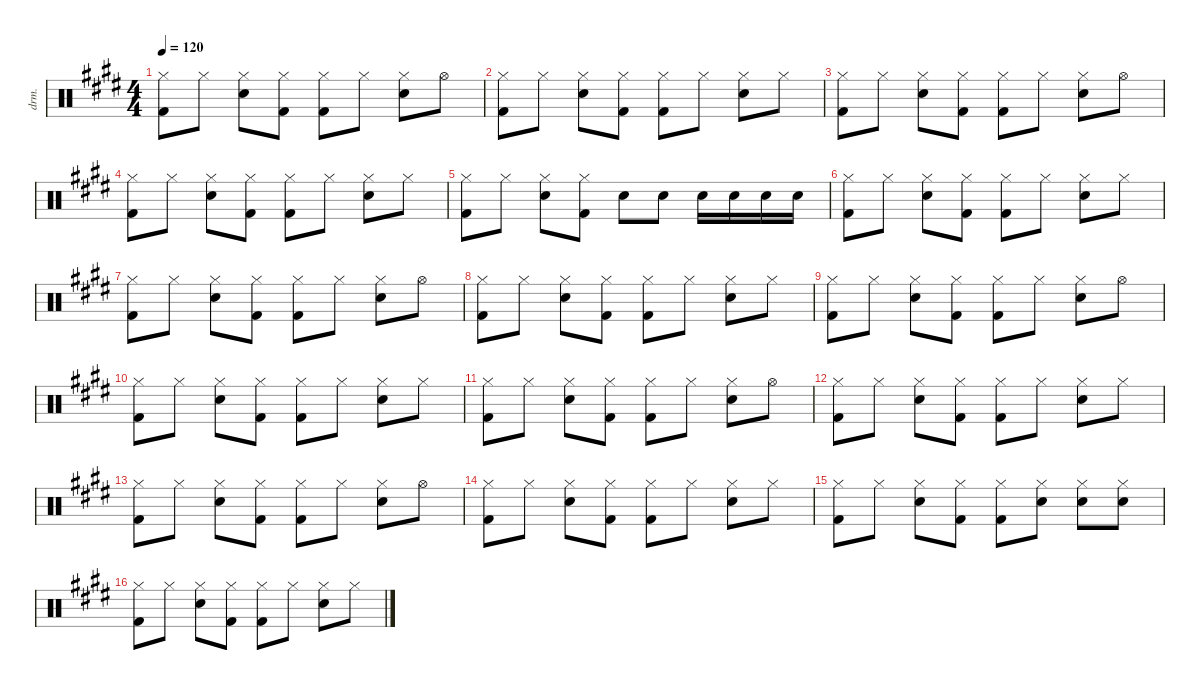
\defaultSystemsLayout 4
\hideDynamics
\bracketExtendMode nobrackets
\track ("Drum" "drm.") {instrument percussion}
\staff {score}
\articulation defaults
\ts (4 4)
\tempo 120
\clef neutral
\ks e
("Hi-Hat (closed)"{acc forcenatural} "Kick (hit) 2"{acc forcenatural}).8{dy f beam Down} "Hi-Hat (closed)"{acc forcenatural}.8{beam Down} ("Hi-Hat (closed)"{acc forcenatural} "Snare (hit) 2"{acc forcenatural}).8{beam Down} ("Hi-Hat (closed)"{acc forcenatural} "Kick (hit) 2"{acc forcenatural}).8{beam Down} ("Hi-Hat (closed)"{acc forcenatural} "Kick (hit) 2"{acc forcenatural}).8{beam Down} "Hi-Hat (closed)"{acc forcenatural}.8{beam Down} ("Hi-Hat (closed)"{acc forcenatural} "Snare (hit) 2"{acc forcenatural}).8{beam Down} "Hi-Hat (open)"{acc forcenatural}.8{beam Down} |
("Hi-Hat (closed)"{acc forcenatural} "Kick (hit) 2"{acc forcenatural}).8{beam Down} "Hi-Hat (closed)"{acc forcenatural}.8{beam Down} ("Hi-Hat (closed)"{acc forcenatural} "Snare (hit) 2"{acc forcenatural}).8{beam Down} ("Hi-Hat (closed)"{acc forcenatural} "Kick (hit) 2"{acc forcenatural}).8{beam Down} ("Hi-Hat (closed)"{acc forcenatural} "Kick (hit) 2"{acc forcenatural}).8{beam Down} "Hi-Hat (closed)"{acc forcenatural}.8{beam Down} ("Hi-Hat (closed)"{acc forcenatural} "Snare (hit) 2"{acc forcenatural}).8{beam Down} "Hi-Hat (closed)"{acc forcenatural}.8{beam Down} |
("Hi-Hat (closed)"{acc forcenatural} "Kick (hit) 2"{acc forcenatural}).8{beam Down} "Hi-Hat (closed)"{acc forcenatural}.8{beam Down} ("Hi-Hat (closed)"{acc forcenatural} "Snare (hit) 2"{acc forcenatural}).8{beam Down} ("Hi-Hat (closed)"{acc forcenatural} "Kick (hit) 2"{acc forcenatural}).8{beam Down} ("Hi-Hat (closed)"{acc forcenatural} "Kick (hit) 2"{acc forcenatural}).8{beam Down} "Hi-Hat (closed)"{acc forcenatural}.8{beam Down} ("Hi-Hat (closed)"{acc forcenatural} "Snare (hit) 2"{acc forcenatural}).8{beam Down} "Hi-Hat (open)"{acc forcenatural}.8{beam Down} |
("Hi-Hat (closed)"{acc forcenatural} "Kick (hit) 2"{acc forcenatural}).8{beam Down} "Hi-Hat (closed)"{acc forcenatural}.8{beam Down} ("Hi-Hat (closed)"{acc forcenatural} "Snare (hit) 2"{acc forcenatural}).8{beam Down} ("Hi-Hat (closed)"{acc forcenatural} "Kick (hit) 2"{acc forcenatural}).8{beam Down} ("Hi-Hat (closed)"{acc forcenatural} "Kick (hit) 2"{acc forcenatural}).8{beam Down} "Hi-Hat (closed)"{acc forcenatural}.8{beam Down} ("Hi-Hat (closed)"{acc forcenatural} "Snare (hit) 2"{acc forcenatural}).8{beam Down} "Hi-Hat (closed)"{acc forcenatural}.8{beam Down} |
("Hi-Hat (closed)"{acc forcenatural} "Kick (hit) 2"{acc forcenatural}).8{beam Down} "Hi-Hat (closed)"{acc forcenatural}.8{beam Down} ("Hi-Hat (closed)"{acc forcenatural} "Snare (hit) 2"{acc forcenatural}).8{beam Down} ("Hi-Hat (closed)"{acc forcenatural} "Kick (hit) 2"{acc forcenatural}).8{beam Down} "Snare (hit) 2"{acc forcenatural}.8{beam Down} "Snare (hit) 2"{acc forcenatural}.8{beam Down} "Snare (hit) 2"{acc forcenatural}.16{beam Down} "Snare (hit) 2"{acc forcenatural}.16{beam Down} "Snare (hit) 2"{acc forcenatural}.16{beam Down} "Snare (hit) 2"{acc forcenatural}.16{beam Down} |
("Hi-Hat (closed)"{acc forcenatural} "Kick (hit) 2"{acc forcenatural}).8{beam Down} "Hi-Hat (closed)"{acc forcenatural}.8{beam Down} ("Hi-Hat (closed)"{acc forcenatural} "Snare (hit) 2"{acc forcenatural}).8{beam Down} ("Hi-Hat (closed)"{acc forcenatural} "Kick (hit) 2"{acc forcenatural}).8{beam Down} ("Hi-Hat (closed)"{acc forcenatural} "Kick (hit) 2"{acc forcenatural}).8{beam Down} "Hi-Hat (closed)"{acc forcenatural}.8{beam Down} ("Hi-Hat (closed)"{acc forcenatural} "Snare (hit) 2"{acc forcenatural}).8{beam Down} "Hi-Hat (closed)"{acc forcenatural}.8{beam Down} |
("Hi-Hat (closed)"{acc forcenatural} "Kick (hit) 2"{acc forcenatural}).8{beam Down} "Hi-Hat (closed)"{acc forcenatural}.8{beam Down} ("Hi-Hat (closed)"{acc forcenatural} "Snare (hit) 2"{acc forcenatural}).8{beam Down} ("Hi-Hat (closed)"{acc forcenatural} "Kick (hit) 2"{acc forcenatural}).8{beam Down} ("Hi-Hat (closed)"{acc forcenatural} "Kick (hit) 2"{acc forcenatural}).8{beam Down} "Hi-Hat (closed)"{acc forcenatural}.8{beam Down} ("Hi-Hat (closed)"{acc forcenatural} "Snare (hit) 2"{acc forcenatural}).8{beam Down} "Hi-Hat (open)"{acc forcenatural}.8{beam Down} |
("Hi-Hat (closed)"{acc forcenatural} "Kick (hit) 2"{acc forcenatural}).8{beam Down} "Hi-Hat (closed)"{acc forcenatural}.8{beam Down} ("Hi-Hat (closed)"{acc forcenatural} "Snare (hit) 2"{acc forcenatural}).8{beam Down} ("Hi-Hat (closed)"{acc forcenatural} "Kick (hit) 2"{acc forcenatural}).8{beam Down} ("Hi-Hat (closed)"{acc forcenatural} "Kick (hit) 2"{acc forcenatural}).8{beam Down} "Hi-Hat (closed)"{acc forcenatural}.8{beam Down} ("Hi-Hat (closed)"{acc forcenatural} "Snare (hit) 2"{acc forcenatural}).8{beam Down} "Hi-Hat (closed)"{acc forcenatural}.8{beam Down} |
("Hi-Hat (closed)"{acc forcenatural} "Kick (hit) 2"{acc forcenatural}).8{beam Down} "Hi-Hat (closed)"{acc forcenatural}.8{beam Down} ("Hi-Hat (closed)"{acc forcenatural} "Snare (hit) 2"{acc forcenatural}).8{beam Down} ("Hi-Hat (closed)"{acc forcenatural} "Kick (hit) 2"{acc forcenatural}).8{beam Down} ("Hi-Hat (closed)"{acc forcenatural} "Kick (hit) 2"{acc forcenatural}).8{beam Down} "Hi-Hat (closed)"{acc forcenatural}.8{beam Down} ("Hi-Hat (closed)"{acc forcenatural} "Snare (hit) 2"{acc forcenatural}).8{beam Down} "Hi-Hat (open)"{acc forcenatural}.8{beam Down} |
("Hi-Hat (closed)"{acc forcenatural} "Kick (hit) 2"{acc forcenatural}).8{beam Down} "Hi-Hat (closed)"{acc forcenatural}.8{beam Down} ("Hi-Hat (closed)"{acc forcenatural} "Snare (hit) 2"{acc forcenatural}).8{beam Down} ("Hi-Hat (closed)"{acc forcenatural} "Kick (hit) 2"{acc forcenatural}).8{beam Down} ("Hi-Hat (closed)"{acc forcenatural} "Kick (hit) 2"{acc forcenatural}).8{beam Down} "Hi-Hat (closed)"{acc forcenatural}.8{beam Down} ("Hi-Hat (closed)"{acc forcenatural} "Snare (hit) 2"{acc forcenatural}).8{beam Down} "Hi-Hat (closed)"{acc forcenatural}.8{beam Down} |
("Hi-Hat (closed)"{acc forcenatural} "Kick (hit) 2"{acc forcenatural}).8{beam Down} "Hi-Hat (closed)"{acc forcenatural}.8{beam Down} ("Hi-Hat (closed)"{acc forcenatural} "Snare (hit) 2"{acc forcenatural}).8{beam Down} ("Hi-Hat (closed)"{acc forcenatural} "Kick (hit) 2"{acc forcenatural}).8{beam Down} ("Hi-Hat (closed)"{acc forcenatural} "Kick (hit) 2"{acc forcenatural}).8{beam Down} "Hi-Hat (closed)"{acc forcenatural}.8{beam Down} ("Hi-Hat (closed)"{acc forcenatural} "Snare (hit) 2"{acc forcenatural}).8{beam Down} "Hi-Hat (open)"{acc forcenatural}.8{beam Down} |
("Hi-Hat (closed)"{acc forcenatural} "Kick (hit) 2"{acc forcenatural}).8{beam Down} "Hi-Hat (closed)"{acc forcenatural}.8{beam Down} ("Hi-Hat (closed)"{acc forcenatural} "Snare (hit) 2"{acc forcenatural}).8{beam Down} ("Hi-Hat (closed)"{acc forcenatural} "Kick (hit) 2"{acc forcenatural}).8{beam Down} ("Hi-Hat (closed)"{acc forcenatural} "Kick (hit) 2"{acc forcenatural}).8{beam Down} "Hi-Hat (closed)"{acc forcenatural}.8{beam Down} ("Hi-Hat (closed)"{acc forcenatural} "Snare (hit) 2"{acc forcenatural}).8{beam Down} "Hi-Hat (closed)"{acc forcenatural}.8{beam Down} |
("Hi-Hat (closed)"{acc forcenatural} "Kick (hit) 2"{acc forcenatural}).8{beam Down} "Hi-Hat (closed)"{acc forcenatural}.8{beam Down} ("Hi-Hat (closed)"{acc forcenatural} "Snare (hit) 2"{acc forcenatural}).8{beam Down} ("Hi-Hat (closed)"{acc forcenatural} "Kick (hit) 2"{acc forcenatural}).8{beam Down} ("Hi-Hat (closed)"{acc forcenatural} "Kick (hit) 2"{acc forcenatural}).8{beam Down} "Hi-Hat (closed)"{acc forcenatural}.8{beam Down} ("Hi-Hat (closed)"{acc forcenatural} "Snare (hit) 2"{acc forcenatural}).8{beam Down} "Hi-Hat (open)"{acc forcenatural}.8{beam Down} |
("Hi-Hat (closed)"{acc forcenatural} "Kick (hit) 2"{acc forcenatural}).8{beam Down} "Hi-Hat (closed)"{acc forcenatural}.8{beam Down} ("Hi-Hat (closed)"{acc forcenatural} "Snare (hit) 2"{acc forcenatural}).8{beam Down} ("Hi-Hat (closed)"{acc forcenatural} "Kick (hit) 2"{acc forcenatural}).8{beam Down} ("Hi-Hat (closed)"{acc forcenatural} "Kick (hit) 2"{acc forcenatural}).8{beam Down} "Hi-Hat (closed)"{acc forcenatural}.8{beam Down} ("Hi-Hat (closed)"{acc forcenatural} "Snare (hit) 2"{acc forcenatural}).8{beam Down} "Hi-Hat (closed)"{acc forcenatural}.8{beam Down} |
("Hi-Hat (closed)"{acc forcenatural} "Kick (hit) 2"{acc forcenatural}).8{beam Down} "Hi-Hat (closed)"{acc forcenatural}.8{beam Down} ("Hi-Hat (closed)"{acc forcenatural} "Snare (hit) 2"{acc forcenatural}).8{beam Down} ("Hi-Hat (closed)"{acc forcenatural} "Kick (hit) 2"{acc forcenatural}).8{beam Down} ("Hi-Hat (closed)"{acc forcenatural} "Kick (hit) 2"{acc forcenatural}).8{beam Down} ("Hi-Hat (closed)"{acc forcenatural} "Snare (hit) 2"{acc forcenatural}).8{beam Down} ("Hi-Hat (closed)"{acc forcenatural} "Snare (hit) 2"{acc forcenatural}).8{beam Down} ("Hi-Hat (closed)"{acc forcenatural} "Snare (hit) 2"{acc forcenatural}).8{beam Down} |
("Hi-Hat (closed)"{acc forcenatural} "Kick (hit) 2"{acc forcenatural}).8{beam Down} "Hi-Hat (closed)"{acc forcenatural}.8{beam Down} ("Hi-Hat (closed)"{acc forcenatural} "Snare (hit) 2"{acc forcenatural}).8{beam Down} ("Hi-Hat (closed)"{acc forcenatural} "Kick (hit) 2"{acc forcenatural}).8{beam Down} ("Hi-Hat (closed)"{acc forcenatural} "Kick (hit) 2"{acc forcenatural}).8{beam Down} "Hi-Hat (closed)"{acc forcenatural}.8{beam Down} ("Hi-Hat (closed)"{acc forcenatural} "Snare (hit) 2"{acc forcenatural}).8{beam Down} "Hi-Hat (closed)"{acc forcenatural}.8{beam Down}
